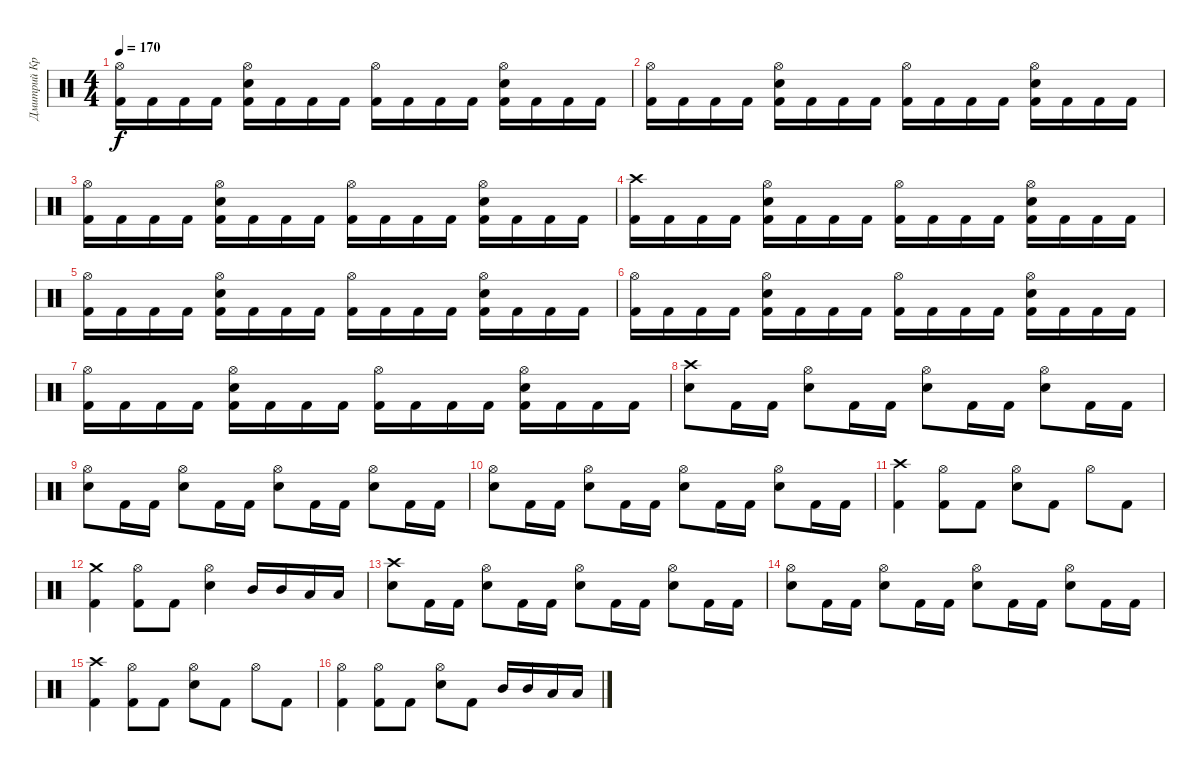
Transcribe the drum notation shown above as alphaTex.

\track ("Дмитрий Кривенков" "Дмитрий Кр") {instrument percussion}
\staff {score}
\articulation defaults
\ts (4 4)
\tempo 170
\clef neutral
\ks c
("Hi-Hat (open)" "Kick (hit) 2").16{dy f} "Kick (hit) 2".16 "Kick (hit) 2".16 "Kick (hit) 2".16 ("Hi-Hat (open)" "Electric Snare (hit)" "Kick (hit) 2").16 "Kick (hit) 2".16 "Kick (hit) 2".16 "Kick (hit) 2".16 ("Hi-Hat (open)" "Kick (hit) 2").16 "Kick (hit) 2".16 "Kick (hit) 2".16 "Kick (hit) 2".16 ("Hi-Hat (open)" "Electric Snare (hit)" "Kick (hit) 2").16 "Kick (hit) 2".16 "Kick (hit) 2".16 "Kick (hit) 2".16 |
("Hi-Hat (open)" "Kick (hit) 2").16 "Kick (hit) 2".16 "Kick (hit) 2".16 "Kick (hit) 2".16 ("Hi-Hat (open)" "Electric Snare (hit)" "Kick (hit) 2").16 "Kick (hit) 2".16 "Kick (hit) 2".16 "Kick (hit) 2".16 ("Hi-Hat (open)" "Kick (hit) 2").16 "Kick (hit) 2".16 "Kick (hit) 2".16 "Kick (hit) 2".16 ("Hi-Hat (open)" "Electric Snare (hit)" "Kick (hit) 2").16 "Kick (hit) 2".16 "Kick (hit) 2".16 "Kick (hit) 2".16 |
("Hi-Hat (open)" "Kick (hit) 2").16 "Kick (hit) 2".16 "Kick (hit) 2".16 "Kick (hit) 2".16 ("Hi-Hat (open)" "Electric Snare (hit)" "Kick (hit) 2").16 "Kick (hit) 2".16 "Kick (hit) 2".16 "Kick (hit) 2".16 ("Hi-Hat (open)" "Kick (hit) 2").16 "Kick (hit) 2".16 "Kick (hit) 2".16 "Kick (hit) 2".16 ("Hi-Hat (open)" "Electric Snare (hit)" "Kick (hit) 2").16 "Kick (hit) 2".16 "Kick (hit) 2".16 "Kick (hit) 2".16 |
("Crash high (hit)" "Kick (hit) 2").16 "Kick (hit) 2".16 "Kick (hit) 2".16 "Kick (hit) 2".16 ("Hi-Hat (open)" "Electric Snare (hit)" "Kick (hit) 2").16 "Kick (hit) 2".16 "Kick (hit) 2".16 "Kick (hit) 2".16 ("Hi-Hat (open)" "Kick (hit) 2").16 "Kick (hit) 2".16 "Kick (hit) 2".16 "Kick (hit) 2".16 ("Hi-Hat (open)" "Electric Snare (hit)" "Kick (hit) 2").16 "Kick (hit) 2".16 "Kick (hit) 2".16 "Kick (hit) 2".16 |
("Hi-Hat (open)" "Kick (hit) 2").16 "Kick (hit) 2".16 "Kick (hit) 2".16 "Kick (hit) 2".16 ("Hi-Hat (open)" "Electric Snare (hit)" "Kick (hit) 2").16 "Kick (hit) 2".16 "Kick (hit) 2".16 "Kick (hit) 2".16 ("Hi-Hat (open)" "Kick (hit) 2").16 "Kick (hit) 2".16 "Kick (hit) 2".16 "Kick (hit) 2".16 ("Hi-Hat (open)" "Electric Snare (hit)" "Kick (hit) 2").16 "Kick (hit) 2".16 "Kick (hit) 2".16 "Kick (hit) 2".16 |
("Hi-Hat (open)" "Kick (hit) 2").16 "Kick (hit) 2".16 "Kick (hit) 2".16 "Kick (hit) 2".16 ("Hi-Hat (open)" "Electric Snare (hit)" "Kick (hit) 2").16 "Kick (hit) 2".16 "Kick (hit) 2".16 "Kick (hit) 2".16 ("Hi-Hat (open)" "Kick (hit) 2").16 "Kick (hit) 2".16 "Kick (hit) 2".16 "Kick (hit) 2".16 ("Hi-Hat (open)" "Electric Snare (hit)" "Kick (hit) 2").16 "Kick (hit) 2".16 "Kick (hit) 2".16 "Kick (hit) 2".16 |
("Hi-Hat (open)" "Kick (hit) 2").16 "Kick (hit) 2".16 "Kick (hit) 2".16 "Kick (hit) 2".16 ("Hi-Hat (open)" "Electric Snare (hit)" "Kick (hit) 2").16 "Kick (hit) 2".16 "Kick (hit) 2".16 "Kick (hit) 2".16 ("Hi-Hat (open)" "Kick (hit) 2").16 "Kick (hit) 2".16 "Kick (hit) 2".16 "Kick (hit) 2".16 ("Hi-Hat (open)" "Electric Snare (hit)" "Kick (hit) 2").16 "Kick (hit) 2".16 "Kick (hit) 2".16 "Kick (hit) 2".16 |
("Crash high (hit)" "Electric Snare (hit)").8 "Kick (hit) 2".16 "Kick (hit) 2".16 ("Hi-Hat (open)" "Electric Snare (hit)").8 "Kick (hit) 2".16 "Kick (hit) 2".16 ("Hi-Hat (open)" "Electric Snare (hit)").8 "Kick (hit) 2".16 "Kick (hit) 2".16 ("Hi-Hat (open)" "Electric Snare (hit)").8 "Kick (hit) 2".16 "Kick (hit) 2".16 |
("Hi-Hat (open)" "Electric Snare (hit)").8 "Kick (hit) 2".16 "Kick (hit) 2".16 ("Hi-Hat (open)" "Electric Snare (hit)").8 "Kick (hit) 2".16 "Kick (hit) 2".16 ("Hi-Hat (open)" "Electric Snare (hit)").8 "Kick (hit) 2".16 "Kick (hit) 2".16 ("Hi-Hat (open)" "Electric Snare (hit)").8 "Kick (hit) 2".16 "Kick (hit) 2".16 |
("Hi-Hat (open)" "Electric Snare (hit)").8 "Kick (hit) 2".16 "Kick (hit) 2".16 ("Hi-Hat (open)" "Electric Snare (hit)").8 "Kick (hit) 2".16 "Kick (hit) 2".16 ("Hi-Hat (open)" "Electric Snare (hit)").8 "Kick (hit) 2".16 "Kick (hit) 2".16 ("Hi-Hat (open)" "Electric Snare (hit)").8 "Kick (hit) 2".16 "Kick (hit) 2".16 |
("Crash high (hit)" "Kick (hit) 2").4 ("Hi-Hat (open)" "Kick (hit) 2").8 "Kick (hit) 2".8 ("Hi-Hat (open)" "Electric Snare (hit)").8 "Kick (hit) 2".8 "Hi-Hat (open)".8 "Kick (hit) 2".8 |
("Crash medium (hit)" "Kick (hit) 2").4 ("Hi-Hat (open)" "Kick (hit) 2").8 "Kick (hit) 2".8 ("Hi-Hat (open)" "Electric Snare (hit)").4 "Mid Tom (hit)".16 "Mid Tom (hit)".16 "Low Tom (hit)".16 "Low Tom (hit)".16 |
("Crash high (hit)" "Electric Snare (hit)").8 "Kick (hit) 2".16 "Kick (hit) 2".16 ("Hi-Hat (open)" "Electric Snare (hit)").8 "Kick (hit) 2".16 "Kick (hit) 2".16 ("Hi-Hat (open)" "Electric Snare (hit)").8 "Kick (hit) 2".16 "Kick (hit) 2".16 ("Hi-Hat (open)" "Electric Snare (hit)").8 "Kick (hit) 2".16 "Kick (hit) 2".16 |
("Hi-Hat (open)" "Electric Snare (hit)").8 "Kick (hit) 2".16 "Kick (hit) 2".16 ("Hi-Hat (open)" "Electric Snare (hit)").8 "Kick (hit) 2".16 "Kick (hit) 2".16 ("Hi-Hat (open)" "Electric Snare (hit)").8 "Kick (hit) 2".16 "Kick (hit) 2".16 ("Hi-Hat (open)" "Electric Snare (hit)").8 "Kick (hit) 2".16 "Kick (hit) 2".16 |
("Crash high (hit)" "Kick (hit) 2").4 ("Hi-Hat (open)" "Kick (hit) 2").8 "Kick (hit) 2".8 ("Hi-Hat (open)" "Electric Snare (hit)").8 "Kick (hit) 2".8 "Hi-Hat (open)".8 "Kick (hit) 2".8 |
("Hi-Hat (open)" "Kick (hit) 2").4 ("Hi-Hat (open)" "Kick (hit) 2").8 "Kick (hit) 2".8 ("Hi-Hat (open)" "Electric Snare (hit)").8 "Kick (hit) 2".8 "Mid Tom (hit)".16 "Mid Tom (hit)".16 "Low Tom (hit)".16 "Low Tom (hit)".16
